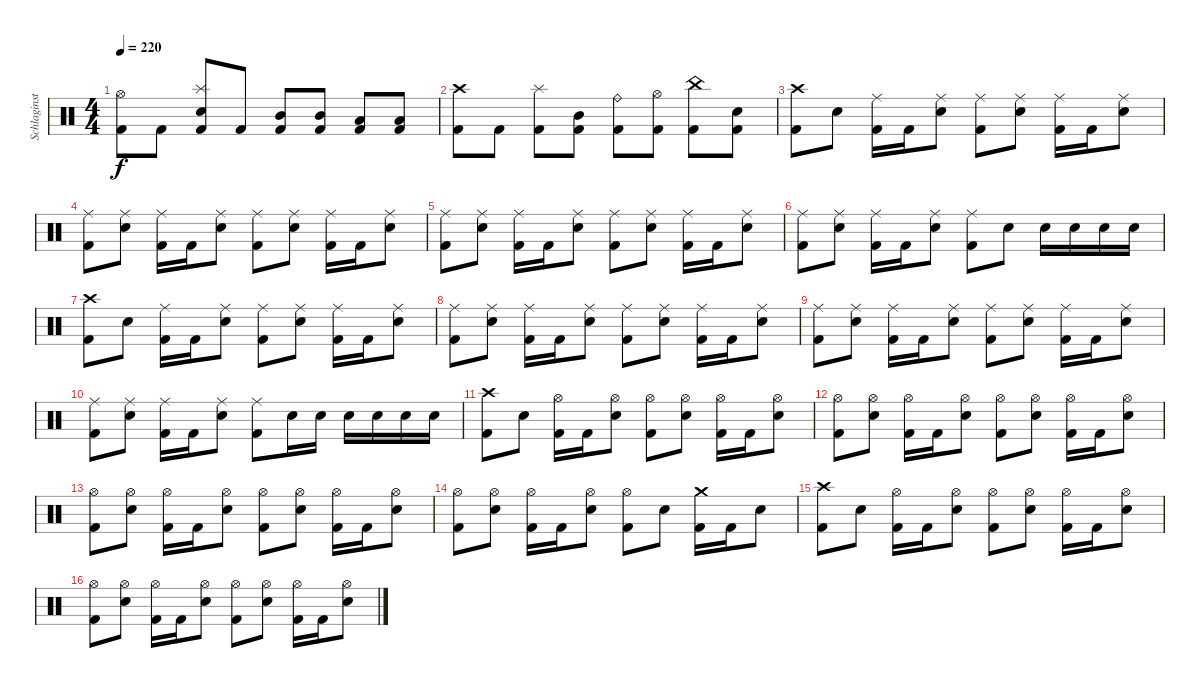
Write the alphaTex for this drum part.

\track ("Schlaginstrumente - Auswahl" "Schlaginst") {instrument percussion}
\staff {score}
\articulation defaults
\ts (4 4)
\tempo 220
\clef neutral
\ks c
("Hi-Hat (open)" "Kick (hit) 2").8{dy f} "Kick (hit) 2".8 ("Splash (hit)" "Snare (hit) 2" "Kick (hit) 2").8 "Kick (hit) 2".8 ("Mid Tom (hit)" "Kick (hit) 2").8 ("Mid Tom (hit)" "Kick (hit) 2").8 ("Low Tom (hit)" "Kick (hit) 2").8 ("Low Tom (hit)" "Kick (hit) 2").8 |
("Crash high (hit)" "Kick (hit) 2").8 "Kick (hit) 2".8 ("Splash (hit)" "Kick (hit) 2").8 ("Mid Tom (hit)" "Kick (hit) 2").8 ("Ride (bell)" "Kick (hit) 2").8 ("Hi-Hat (open)" "Kick (hit) 2").8 ("China (hit)" "Kick (hit) 2").8 ("Snare (hit) 2" "Kick (hit) 2").8 |
("Crash high (hit)" "Kick (hit) 2").8 "Snare (hit) 2".8 ("Ride (middle)" "Kick (hit) 2").16 "Kick (hit) 2".16 ("Ride (middle)" "Snare (hit) 2").8 ("Ride (middle)" "Kick (hit) 2").8 ("Ride (middle)" "Snare (hit) 2").8 ("Ride (middle)" "Kick (hit) 2").16 "Kick (hit) 2".16 ("Ride (middle)" "Snare (hit) 2").8 |
("Ride (middle)" "Kick (hit) 2").8 ("Ride (middle)" "Snare (hit) 2").8 ("Ride (middle)" "Kick (hit) 2").16 "Kick (hit) 2".16 ("Ride (middle)" "Snare (hit) 2").8 ("Ride (middle)" "Kick (hit) 2").8 ("Ride (middle)" "Snare (hit) 2").8 ("Ride (middle)" "Kick (hit) 2").16 "Kick (hit) 2".16 ("Ride (middle)" "Snare (hit) 2").8 |
("Ride (middle)" "Kick (hit) 2").8 ("Ride (middle)" "Snare (hit) 2").8 ("Ride (middle)" "Kick (hit) 2").16 "Kick (hit) 2".16 ("Ride (middle)" "Snare (hit) 2").8 ("Ride (middle)" "Kick (hit) 2").8 ("Ride (middle)" "Snare (hit) 2").8 ("Ride (middle)" "Kick (hit) 2").16 "Kick (hit) 2".16 ("Ride (middle)" "Snare (hit) 2").8 |
("Ride (middle)" "Kick (hit) 2").8 ("Ride (middle)" "Snare (hit) 2").8 ("Ride (middle)" "Kick (hit) 2").16 "Kick (hit) 2".16 ("Ride (middle)" "Snare (hit) 2").8 ("Ride (middle)" "Kick (hit) 2").8 "Snare (hit) 2".8 "Snare (hit) 2".16 "Snare (hit) 2".16 "Snare (hit) 2".16 "Snare (hit) 2".16 |
("Crash high (hit)" "Kick (hit) 2").8 "Snare (hit) 2".8 ("Ride (middle)" "Kick (hit) 2").16 "Kick (hit) 2".16 ("Ride (middle)" "Snare (hit) 2").8 ("Ride (middle)" "Kick (hit) 2").8 ("Ride (middle)" "Snare (hit) 2").8 ("Ride (middle)" "Kick (hit) 2").16 "Kick (hit) 2".16 ("Ride (middle)" "Snare (hit) 2").8 |
("Ride (middle)" "Kick (hit) 2").8 ("Ride (middle)" "Snare (hit) 2").8 ("Ride (middle)" "Kick (hit) 2").16 "Kick (hit) 2".16 ("Ride (middle)" "Snare (hit) 2").8 ("Ride (middle)" "Kick (hit) 2").8 ("Ride (middle)" "Snare (hit) 2").8 ("Ride (middle)" "Kick (hit) 2").16 "Kick (hit) 2".16 ("Ride (middle)" "Snare (hit) 2").8 |
("Ride (middle)" "Kick (hit) 2").8 ("Ride (middle)" "Snare (hit) 2").8 ("Ride (middle)" "Kick (hit) 2").16 "Kick (hit) 2".16 ("Ride (middle)" "Snare (hit) 2").8 ("Ride (middle)" "Kick (hit) 2").8 ("Ride (middle)" "Snare (hit) 2").8 ("Ride (middle)" "Kick (hit) 2").16 "Kick (hit) 2".16 ("Ride (middle)" "Snare (hit) 2").8 |
("Ride (middle)" "Kick (hit) 2").8 ("Ride (middle)" "Snare (hit) 2").8 ("Ride (middle)" "Kick (hit) 2").16 "Kick (hit) 2".16 ("Ride (middle)" "Snare (hit) 2").8 ("Ride (middle)" "Kick (hit) 2").8 "Snare (hit) 2".16 "Snare (hit) 2".16 "Snare (hit) 2".16 "Snare (hit) 2".16 "Snare (hit) 2".16 "Snare (hit) 2".16 |
("Crash high (hit)" "Kick (hit) 2").8 "Snare (hit) 2".8 ("Hi-Hat (open)" "Kick (hit) 2").16 "Kick (hit) 2".16 ("Hi-Hat (open)" "Snare (hit) 2").8 ("Hi-Hat (open)" "Kick (hit) 2").8 ("Hi-Hat (open)" "Snare (hit) 2").8 ("Hi-Hat (open)" "Kick (hit) 2").16 "Kick (hit) 2".16 ("Hi-Hat (open)" "Snare (hit) 2").8 |
("Hi-Hat (open)" "Kick (hit) 2").8 ("Hi-Hat (open)" "Snare (hit) 2").8 ("Hi-Hat (open)" "Kick (hit) 2").16 "Kick (hit) 2".16 ("Hi-Hat (open)" "Snare (hit) 2").8 ("Hi-Hat (open)" "Kick (hit) 2").8 ("Hi-Hat (open)" "Snare (hit) 2").8 ("Hi-Hat (open)" "Kick (hit) 2").16 "Kick (hit) 2".16 ("Hi-Hat (open)" "Snare (hit) 2").8 |
("Hi-Hat (open)" "Kick (hit) 2").8 ("Hi-Hat (open)" "Snare (hit) 2").8 ("Hi-Hat (open)" "Kick (hit) 2").16 "Kick (hit) 2".16 ("Hi-Hat (open)" "Snare (hit) 2").8 ("Hi-Hat (open)" "Kick (hit) 2").8 ("Hi-Hat (open)" "Snare (hit) 2").8 ("Hi-Hat (open)" "Kick (hit) 2").16 "Kick (hit) 2".16 ("Hi-Hat (open)" "Snare (hit) 2").8 |
("Hi-Hat (open)" "Kick (hit) 2").8 ("Hi-Hat (open)" "Snare (hit) 2").8 ("Hi-Hat (open)" "Kick (hit) 2").16 "Kick (hit) 2".16 ("Hi-Hat (open)" "Snare (hit) 2").8 ("Hi-Hat (open)" "Kick (hit) 2").8 "Snare (hit) 2".8 ("Crash medium (hit)" "Kick (hit) 2").16 "Kick (hit) 2".16 "Snare (hit) 2".8 |
("Crash high (hit)" "Kick (hit) 2").8 "Snare (hit) 2".8 ("Hi-Hat (open)" "Kick (hit) 2").16 "Kick (hit) 2".16 ("Hi-Hat (open)" "Snare (hit) 2").8 ("Hi-Hat (open)" "Kick (hit) 2").8 ("Hi-Hat (open)" "Snare (hit) 2").8 ("Hi-Hat (open)" "Kick (hit) 2").16 "Kick (hit) 2".16 ("Hi-Hat (open)" "Snare (hit) 2").8 |
("Hi-Hat (open)" "Kick (hit) 2").8 ("Hi-Hat (open)" "Snare (hit) 2").8 ("Hi-Hat (open)" "Kick (hit) 2").16 "Kick (hit) 2".16 ("Hi-Hat (open)" "Snare (hit) 2").8 ("Hi-Hat (open)" "Kick (hit) 2").8 ("Hi-Hat (open)" "Snare (hit) 2").8 ("Hi-Hat (open)" "Kick (hit) 2").16 "Kick (hit) 2".16 ("Hi-Hat (open)" "Snare (hit) 2").8
